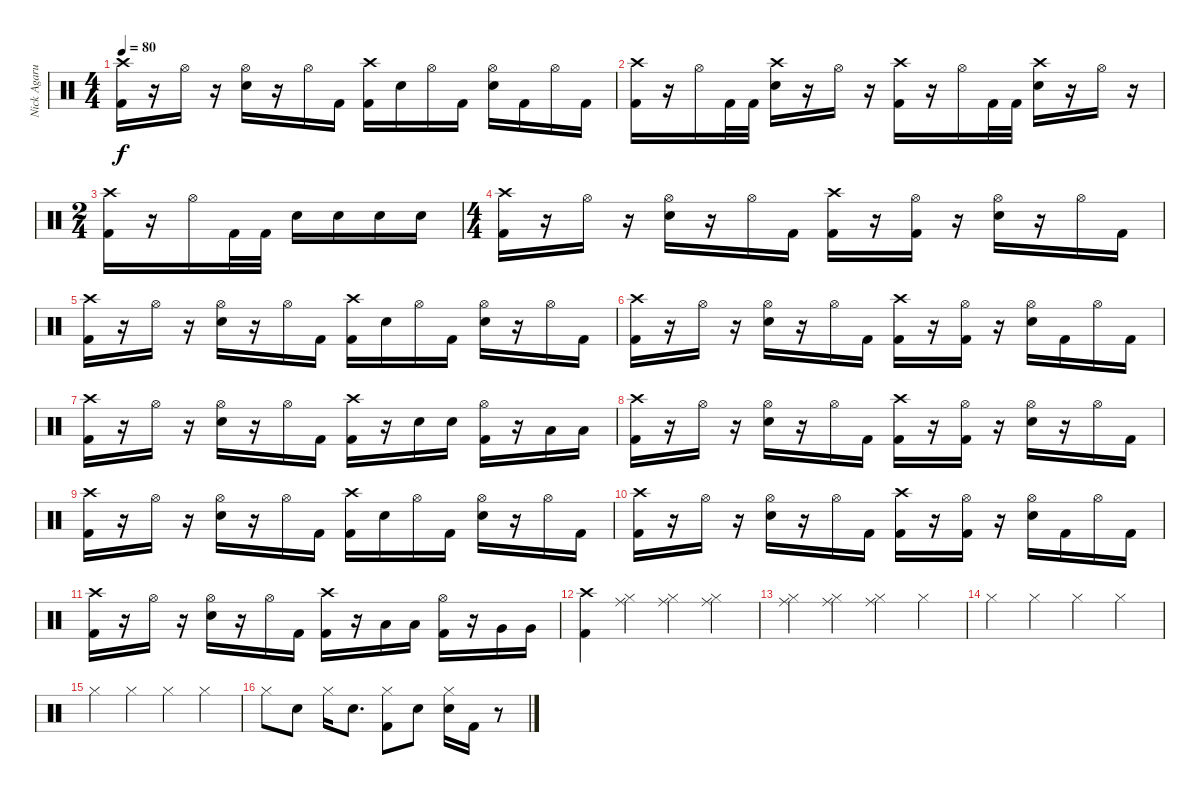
\track ("Nick Agarua" "Nick Agaru") {instrument percussion}
\staff {score}
\articulation defaults
\ts (4 4)
\tempo 80
\clef neutral
\ks c
("Crash high (hit)" "Kick (hit) 2").16{dy f} r.16 "Hi-Hat (open)".16 r.16 ("Hi-Hat (open)" "Electric Snare (hit)").16 r.16 "Hi-Hat (open)".16 "Kick (hit) 2".16 ("Crash high (hit)" "Kick (hit) 2").16 "Electric Snare (hit)".16 "Hi-Hat (open)".16 "Kick (hit) 2".16 ("Hi-Hat (open)" "Electric Snare (hit)").16 "Kick (hit) 2".16 "Hi-Hat (open)".16 "Kick (hit) 2".16 |
("Crash high (hit)" "Kick (hit) 2").16 r.16 "Hi-Hat (open)".16 "Kick (hit) 2".32 "Kick (hit) 2".32 ("Crash high (hit)" "Electric Snare (hit)").16 r.16 "Hi-Hat (open)".16 r.16 ("Crash high (hit)" "Kick (hit) 2").16 r.16 "Hi-Hat (open)".16 "Kick (hit) 2".32 "Kick (hit) 2".32 ("Crash high (hit)" "Electric Snare (hit)").16 r.16 "Hi-Hat (open)".16 r.16 |
\ts (2 4)
("Crash high (hit)" "Kick (hit) 2").16 r.16 "Hi-Hat (open)".16 "Kick (hit) 2".32 "Kick (hit) 2".32 "Electric Snare (hit)".16 "Electric Snare (hit)".16 "Electric Snare (hit)".16 "Electric Snare (hit)".16 |
\ts (4 4)
("Crash high (hit)" "Kick (hit) 2").16 r.16 "Hi-Hat (open)".16 r.16 ("Hi-Hat (open)" "Electric Snare (hit)").16 r.16 "Hi-Hat (open)".16 "Kick (hit) 2".16 ("Crash high (hit)" "Kick (hit) 2").16 r.16 ("Hi-Hat (open)" "Kick (hit) 2").16 r.16 ("Hi-Hat (open)" "Electric Snare (hit)").16 r.16 "Hi-Hat (open)".16 "Kick (hit) 2".16 |
("Crash high (hit)" "Kick (hit) 2").16 r.16 "Hi-Hat (open)".16 r.16 ("Hi-Hat (open)" "Electric Snare (hit)").16 r.16 "Hi-Hat (open)".16 "Kick (hit) 2".16 ("Crash high (hit)" "Kick (hit) 2").16 "Electric Snare (hit)".16 "Hi-Hat (open)".16 "Kick (hit) 2".16 ("Hi-Hat (open)" "Electric Snare (hit)").16 r.16 "Hi-Hat (open)".16 "Kick (hit) 2".16 |
("Crash high (hit)" "Kick (hit) 2").16 r.16 "Hi-Hat (open)".16 r.16 ("Hi-Hat (open)" "Electric Snare (hit)").16 r.16 "Hi-Hat (open)".16 "Kick (hit) 2".16 ("Crash high (hit)" "Kick (hit) 2").16 r.16 ("Hi-Hat (open)" "Kick (hit) 2").16 r.16 ("Hi-Hat (open)" "Electric Snare (hit)").16 "Kick (hit) 2".16 "Hi-Hat (open)".16 "Kick (hit) 2".16 |
("Crash high (hit)" "Kick (hit) 2").16 r.16 "Hi-Hat (open)".16 r.16 ("Hi-Hat (open)" "Electric Snare (hit)").16 r.16 "Hi-Hat (open)".16 "Kick (hit) 2".16 ("Crash high (hit)" "Kick (hit) 2").16 r.16 "Electric Snare (hit)".16 "Electric Snare (hit)".16 ("Hi-Hat (open)" "Kick (hit) 2").16 r.16 "Low Tom (hit)".16 "Low Tom (hit)".16 |
("Crash high (hit)" "Kick (hit) 2").16 r.16 "Hi-Hat (open)".16 r.16 ("Hi-Hat (open)" "Electric Snare (hit)").16 r.16 "Hi-Hat (open)".16 "Kick (hit) 2".16 ("Crash high (hit)" "Kick (hit) 2").16 r.16 ("Hi-Hat (open)" "Kick (hit) 2").16 r.16 ("Hi-Hat (open)" "Electric Snare (hit)").16 r.16 "Hi-Hat (open)".16 "Kick (hit) 2".16 |
("Crash high (hit)" "Kick (hit) 2").16 r.16 "Hi-Hat (open)".16 r.16 ("Hi-Hat (open)" "Electric Snare (hit)").16 r.16 "Hi-Hat (open)".16 "Kick (hit) 2".16 ("Crash high (hit)" "Kick (hit) 2").16 "Electric Snare (hit)".16 "Hi-Hat (open)".16 "Kick (hit) 2".16 ("Hi-Hat (open)" "Electric Snare (hit)").16 r.16 "Hi-Hat (open)".16 "Kick (hit) 2".16 |
("Crash high (hit)" "Kick (hit) 2").16 r.16 "Hi-Hat (open)".16 r.16 ("Hi-Hat (open)" "Electric Snare (hit)").16 r.16 "Hi-Hat (open)".16 "Kick (hit) 2".16 ("Crash high (hit)" "Kick (hit) 2").16 r.16 ("Hi-Hat (open)" "Kick (hit) 2").16 r.16 ("Hi-Hat (open)" "Electric Snare (hit)").16 "Kick (hit) 2".16 "Hi-Hat (open)".16 "Kick (hit) 2".16 |
("Crash high (hit)" "Kick (hit) 2").16 r.16 "Hi-Hat (open)".16 r.16 ("Hi-Hat (open)" "Electric Snare (hit)").16 r.16 "Hi-Hat (open)".16 "Kick (hit) 2".16 ("Crash high (hit)" "Kick (hit) 2").16 r.16 "Low Tom (hit)".16 "Low Tom (hit)".16 ("Hi-Hat (open)" "Kick (hit) 2").16 r.16 "Very Low Tom (hit)".16 "Very Low Tom (hit)".16 |
("Crash high (hit)" "Kick (hit) 2").4 ("Ride (middle)" "Hi-Hat (closed)").4 ("Ride (middle)" "Hi-Hat (closed)").4 ("Ride (middle)" "Hi-Hat (closed)").4 |
("Ride (middle)" "Hi-Hat (closed)").4 ("Ride (middle)" "Hi-Hat (closed)").4 ("Ride (middle)" "Hi-Hat (closed)").4 "Hi-Hat (closed)".4 |
"Hi-Hat (closed)".4 "Hi-Hat (closed)".4 "Hi-Hat (closed)".4 "Hi-Hat (closed)".4 |
"Hi-Hat (closed)".4 "Hi-Hat (closed)".4 "Hi-Hat (closed)".4 "Hi-Hat (closed)".4 |
"Hi-Hat (closed)".8 "Electric Snare (hit)".8 "Hi-Hat (closed)".16 "Electric Snare (hit)".8{d} ("Hi-Hat (closed)" "Kick (hit) 2").8 "Electric Snare (hit)".8 ("Hi-Hat (closed)" "Electric Snare (hit)").16 "Kick (hit) 2".16 r.8
